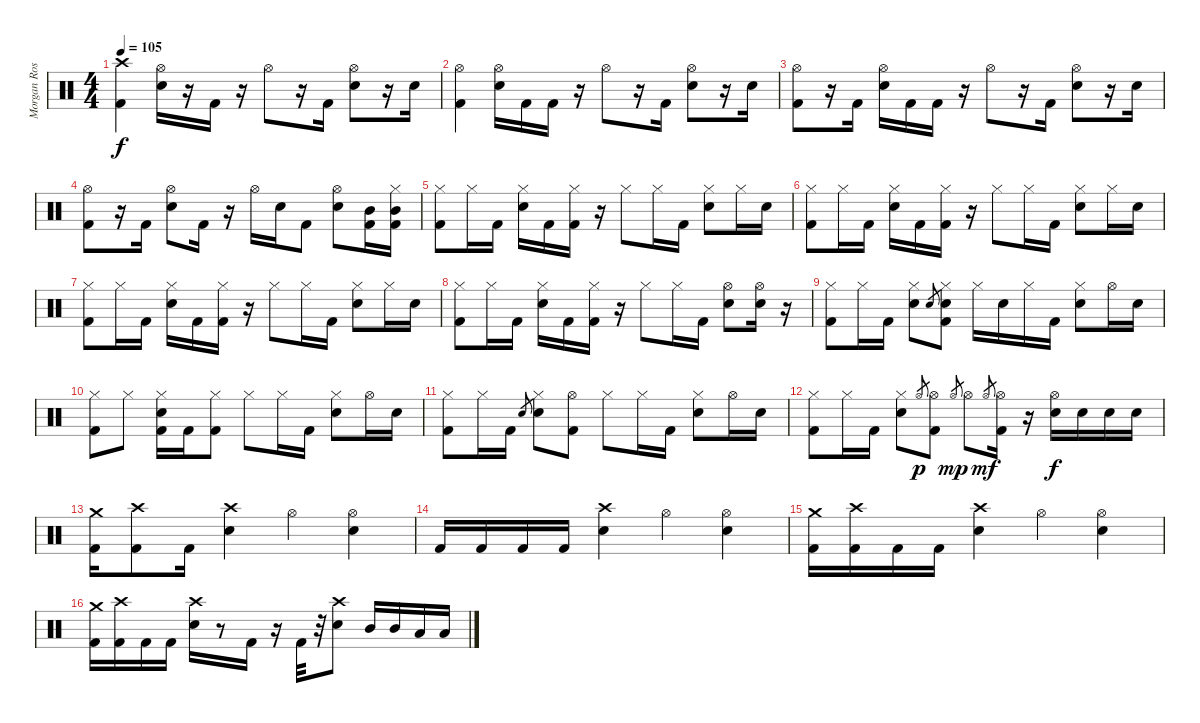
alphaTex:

\track ("Morgan Rose - Drums" "Morgan Ros") {instrument percussion}
\staff {score}
\articulation defaults
\ts (4 4)
\tempo 105
\clef neutral
\ks c
("Crash high (hit)" "Kick (hit) 2").4{dy f} ("Hi-Hat (open)" "Electric Snare (hit)").16 r.16 "Kick (hit) 2".16 r.16 "Hi-Hat (open)".8 r.16 "Kick (hit) 2".16 ("Hi-Hat (open)" "Electric Snare (hit)").8 r.16 "Electric Snare (hit)".16 |
("Hi-Hat (open)" "Kick (hit) 2").4 ("Hi-Hat (open)" "Electric Snare (hit)").16 "Kick (hit) 2".16 "Kick (hit) 2".16 r.16 "Hi-Hat (open)".8 r.16 "Kick (hit) 2".16 ("Hi-Hat (open)" "Electric Snare (hit)").8 r.16 "Electric Snare (hit)".16 |
("Hi-Hat (open)" "Kick (hit) 2").8 r.16 "Kick (hit) 2".16 ("Hi-Hat (open)" "Electric Snare (hit)").16 "Kick (hit) 2".16 "Kick (hit) 2".16 r.16 "Hi-Hat (open)".8 r.16 "Kick (hit) 2".16 ("Hi-Hat (open)" "Electric Snare (hit)").8 r.16 "Electric Snare (hit)".16 |
("Hi-Hat (open)" "Kick (hit) 2").8 r.16 "Kick (hit) 2".16 ("Hi-Hat (open)" "Electric Snare (hit)").8 "Kick (hit) 2".16 r.16 "Hi-Hat (open)".16 "Electric Snare (hit)".16 "Kick (hit) 2".8 ("Hi-Hat (open)" "Electric Snare (hit)").8 ("Mid Tom (hit)" "Kick (hit) 2").16 ("Hi-Hat (closed)" "Mid Tom (hit)" "Kick (hit) 2").16 |
("Hi-Hat (closed)" "Kick (hit) 2").8 "Hi-Hat (closed)".16 "Kick (hit) 2".16 ("Hi-Hat (closed)" "Electric Snare (hit)").16 "Kick (hit) 2".16 ("Hi-Hat (closed)" "Kick (hit) 2").16 r.16 "Hi-Hat (closed)".8 "Hi-Hat (closed)".16 "Kick (hit) 2".16 ("Hi-Hat (closed)" "Electric Snare (hit)").8 "Hi-Hat (closed)".16 "Electric Snare (hit)".16 |
("Hi-Hat (closed)" "Kick (hit) 2").8 "Hi-Hat (closed)".16 "Kick (hit) 2".16 ("Hi-Hat (closed)" "Electric Snare (hit)").16 "Kick (hit) 2".16 ("Hi-Hat (closed)" "Kick (hit) 2").16 r.16 "Hi-Hat (closed)".8 "Hi-Hat (closed)".16 "Kick (hit) 2".16 ("Hi-Hat (closed)" "Electric Snare (hit)").8 "Hi-Hat (closed)".16 "Electric Snare (hit)".16 |
("Hi-Hat (closed)" "Kick (hit) 2").8 "Hi-Hat (closed)".16 "Kick (hit) 2".16 ("Hi-Hat (closed)" "Electric Snare (hit)").16 "Kick (hit) 2".16 ("Hi-Hat (closed)" "Kick (hit) 2").16 r.16 "Hi-Hat (closed)".8 "Hi-Hat (closed)".16 "Kick (hit) 2".16 ("Hi-Hat (closed)" "Electric Snare (hit)").8 "Hi-Hat (closed)".16 "Electric Snare (hit)".16 |
("Hi-Hat (closed)" "Kick (hit) 2").8 "Hi-Hat (closed)".16 "Kick (hit) 2".16 ("Hi-Hat (closed)" "Electric Snare (hit)").16 "Kick (hit) 2".16 ("Hi-Hat (closed)" "Kick (hit) 2").16 r.16 "Hi-Hat (closed)".8 "Hi-Hat (closed)".16 "Kick (hit) 2".16 ("Hi-Hat (open)" "Electric Snare (hit)").8 ("Hi-Hat (open)" "Electric Snare (hit)").16 r.16 |
("Hi-Hat (closed)" "Kick (hit) 2").8 "Hi-Hat (closed)".16 "Kick (hit) 2".16 ("Hi-Hat (closed)" "Electric Snare (hit)").8 "Electric Snare (hit)".8{gr} ("Hi-Hat (closed)" "Electric Snare (hit)" "Kick (hit) 2").8 "Hi-Hat (closed)".16 "Electric Snare (hit)".16 "Hi-Hat (closed)".16 "Kick (hit) 2".16 ("Hi-Hat (closed)" "Electric Snare (hit)").8 "Hi-Hat (open)".16 "Electric Snare (hit)".16 |
("Hi-Hat (closed)" "Kick (hit) 2").8 "Hi-Hat (closed)".8 ("Hi-Hat (closed)" "Electric Snare (hit)" "Kick (hit) 2").16 "Kick (hit) 2".16 ("Hi-Hat (closed)" "Kick (hit) 2").8 "Hi-Hat (closed)".8 "Hi-Hat (closed)".16 "Kick (hit) 2".16 ("Hi-Hat (closed)" "Electric Snare (hit)").8 "Hi-Hat (open)".16 "Electric Snare (hit)".16 |
("Hi-Hat (closed)" "Kick (hit) 2").8 "Hi-Hat (closed)".16 "Kick (hit) 2".16 "Electric Snare (hit)".8{gr} ("Hi-Hat (closed)" "Electric Snare (hit)").8 ("Hi-Hat (open)" "Kick (hit) 2").8 "Hi-Hat (closed)".8 "Hi-Hat (closed)".16 "Kick (hit) 2".16 ("Hi-Hat (closed)" "Electric Snare (hit)").8 "Hi-Hat (open)".16 "Electric Snare (hit)".16 |
("Hi-Hat (closed)" "Kick (hit) 2").8 "Hi-Hat (closed)".16 "Kick (hit) 2".16 ("Hi-Hat (closed)" "Electric Snare (hit)").8 "Hi-Hat (open)"{sl}.8{gr dy p} ("Hi-Hat (open)" "Kick (hit) 2").8 "Hi-Hat (open)"{sl}.8{gr dy mp} "Hi-Hat (open)".8 "Hi-Hat (open)"{sl}.8{gr dy mf} ("Hi-Hat (open)" "Kick (hit) 2").16 r.16 ("Hi-Hat (open)" "Electric Snare (hit)").16{dy f} "Electric Snare (hit)".16 "Electric Snare (hit)".16 "Electric Snare (hit)".16 |
("Crash medium (hit)" "Kick (hit) 2").16 ("Crash high (hit)" "Kick (hit) 2").8 "Kick (hit) 2".16 ("Crash high (hit)" "Electric Snare (hit)").4 "Hi-Hat (open)".4 ("Hi-Hat (open)" "Electric Snare (hit)").4 |
"Kick (hit) 2".16 "Kick (hit) 2".16 "Kick (hit) 2".16 "Kick (hit) 2".16 ("Crash high (hit)" "Electric Snare (hit)").4 "Hi-Hat (open)".4 ("Hi-Hat (open)" "Electric Snare (hit)").4 |
("Crash medium (hit)" "Kick (hit) 2").16 ("Crash high (hit)" "Kick (hit) 2").16 "Kick (hit) 2".16 "Kick (hit) 2".16 ("Crash high (hit)" "Electric Snare (hit)").4 "Hi-Hat (open)".4 ("Hi-Hat (open)" "Electric Snare (hit)").4 |
("Crash medium (hit)" "Kick (hit) 2").16 ("Crash high (hit)" "Kick (hit) 2").16 "Kick (hit) 2".16 "Kick (hit) 2".16 ("Crash high (hit)" "Electric Snare (hit)").16 r.8 "Kick (hit) 2".16 r.16 "Kick (hit) 2".32 r.32 ("Crash high (hit)" "Electric Snare (hit)").8 "Mid Tom (hit)".16 "Mid Tom (hit)".16 "Low Tom (hit)".16 "Low Tom (hit)".16
